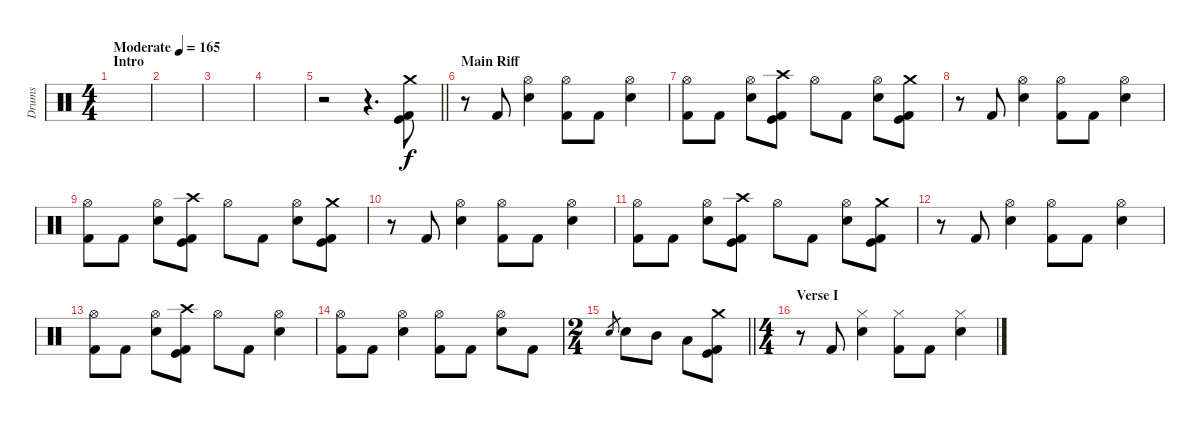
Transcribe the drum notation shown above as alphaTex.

\track ("Drums" "Drums") {instrument percussion}
\staff {score}
\articulation defaults
\ts (4 4)
\section ("" "Intro")
\tempo (165 "Moderate")
\clef neutral
\ks c
|
|
|
|
\barLineRight lightlight
r.2 r.4{d} ("Crash medium (hit)" "Kick (hit) 2" "Kick (hit)").8 |
\section ("" "Main Riff")
r.8 "Kick (hit) 2".8 ("Hi-Hat (open)" "Electric Snare (hit)").4 ("Hi-Hat (open)" "Kick (hit) 2").8 "Kick (hit) 2".8 ("Hi-Hat (open)" "Electric Snare (hit)").4 |
("Hi-Hat (open)" "Kick (hit) 2").8 "Kick (hit) 2".8 ("Hi-Hat (open)" "Electric Snare (hit)").8 ("Crash high (hit)" "Kick (hit) 2" "Kick (hit)").8 "Hi-Hat (open)".8 "Kick (hit) 2".8 ("Hi-Hat (open)" "Electric Snare (hit)").8 ("Crash medium (hit)" "Kick (hit) 2" "Kick (hit)").8 |
r.8 "Kick (hit) 2".8 ("Hi-Hat (open)" "Electric Snare (hit)").4 ("Hi-Hat (open)" "Kick (hit) 2").8 "Kick (hit) 2".8 ("Hi-Hat (open)" "Electric Snare (hit)").4 |
("Hi-Hat (open)" "Kick (hit) 2").8 "Kick (hit) 2".8 ("Hi-Hat (open)" "Electric Snare (hit)").8 ("Crash high (hit)" "Kick (hit) 2" "Kick (hit)").8 "Hi-Hat (open)".8 "Kick (hit) 2".8 ("Hi-Hat (open)" "Electric Snare (hit)").8 ("Crash medium (hit)" "Kick (hit) 2" "Kick (hit)").8 |
r.8 "Kick (hit) 2".8 ("Hi-Hat (open)" "Electric Snare (hit)").4 ("Hi-Hat (open)" "Kick (hit) 2").8 "Kick (hit) 2".8 ("Hi-Hat (open)" "Electric Snare (hit)").4 |
("Hi-Hat (open)" "Kick (hit) 2").8 "Kick (hit) 2".8 ("Hi-Hat (open)" "Electric Snare (hit)").8 ("Crash high (hit)" "Kick (hit) 2" "Kick (hit)").8 "Hi-Hat (open)".8 "Kick (hit) 2".8 ("Hi-Hat (open)" "Electric Snare (hit)").8 ("Crash medium (hit)" "Kick (hit) 2" "Kick (hit)").8 |
r.8 "Kick (hit) 2".8 ("Hi-Hat (open)" "Electric Snare (hit)").4 ("Hi-Hat (open)" "Kick (hit) 2").8 "Kick (hit) 2".8 ("Hi-Hat (open)" "Electric Snare (hit)").4 |
("Hi-Hat (open)" "Kick (hit) 2").8 "Kick (hit) 2".8 ("Hi-Hat (open)" "Electric Snare (hit)").8 ("Crash high (hit)" "Kick (hit) 2" "Kick (hit)").8 "Hi-Hat (open)".8 "Kick (hit) 2".8 ("Hi-Hat (open)" "Electric Snare (hit)").4 |
("Hi-Hat (open)" "Kick (hit) 2").8 "Kick (hit) 2".8 ("Hi-Hat (open)" "Electric Snare (hit)").4 ("Hi-Hat (open)" "Kick (hit) 2").8 "Kick (hit) 2".8 ("Hi-Hat (open)" "Electric Snare (hit)").8 "Kick (hit) 2".8 |
\ts (2 4)
\barLineRight lightlight "Electric Snare (hit)".8{gr} "Electric Snare (hit)".8 "Mid Tom (hit)".8 "Low Tom (hit)".8
("Crash medium (hit)" "Kick (hit) 2" "Kick (hit)").8 |
\ts (4 4)
\section ("" "Verse I")
r.8 "Kick (hit) 2".8 ("Hi-Hat (closed)" "Electric Snare (hit)").4 ("Hi-Hat (closed)" "Kick (hit) 2").8 "Kick (hit) 2".8 ("Hi-Hat (closed)" "Electric Snare (hit)").4
